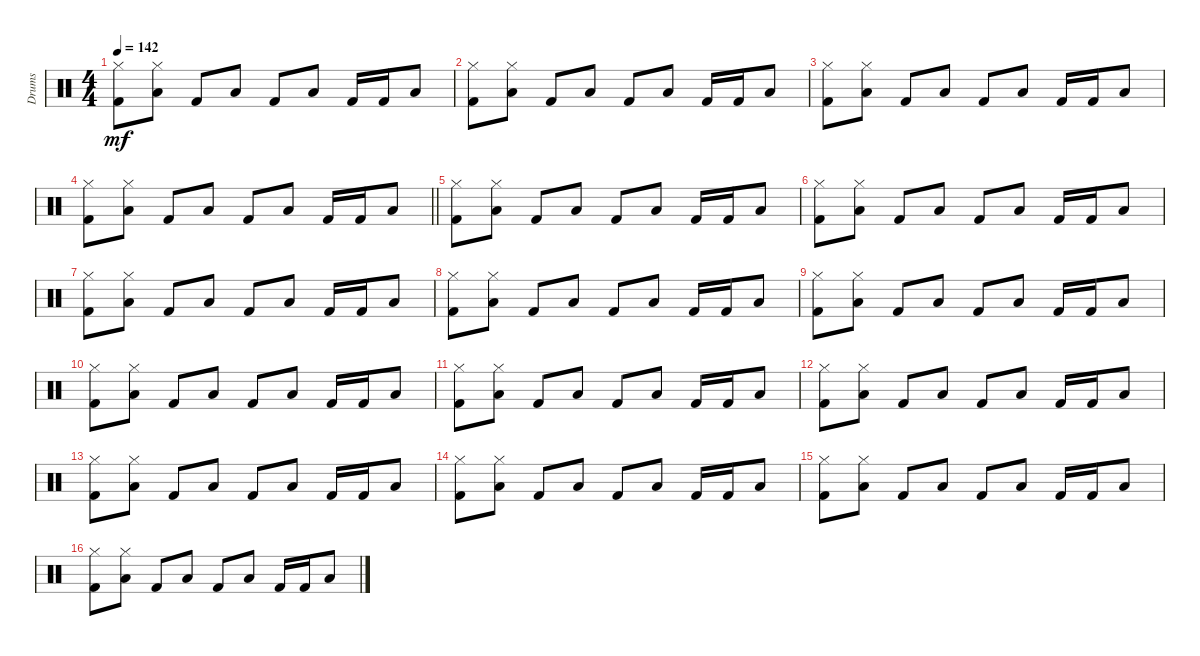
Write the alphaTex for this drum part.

\track ("Drums" "Drums") {instrument percussion}
\staff {score}
\articulation defaults
\ts (4 4)
\tempo 142
\clef neutral
\ks c
("Hi-Hat (closed)" "Kick (hit) 2").8{dy mf} ("Hi-Hat (closed)" "Low Tom (hit)").8 "Kick (hit) 2".8 "Low Tom (hit)".8 "Kick (hit) 2".8 "Low Tom (hit)".8 "Kick (hit) 2".16 "Kick (hit) 2".16 "Low Tom (hit)".8 |
("Hi-Hat (closed)" "Kick (hit) 2").8 ("Hi-Hat (closed)" "Low Tom (hit)").8 "Kick (hit) 2".8 "Low Tom (hit)".8 "Kick (hit) 2".8 "Low Tom (hit)".8 "Kick (hit) 2".16 "Kick (hit) 2".16 "Low Tom (hit)".8 |
("Hi-Hat (closed)" "Kick (hit) 2").8 ("Hi-Hat (closed)" "Low Tom (hit)").8 "Kick (hit) 2".8 "Low Tom (hit)".8 "Kick (hit) 2".8 "Low Tom (hit)".8 "Kick (hit) 2".16 "Kick (hit) 2".16 "Low Tom (hit)".8 |
\barLineRight lightlight
("Hi-Hat (closed)" "Kick (hit) 2").8 ("Hi-Hat (closed)" "Low Tom (hit)").8 "Kick (hit) 2".8 "Low Tom (hit)".8 "Kick (hit) 2".8 "Low Tom (hit)".8 "Kick (hit) 2".16 "Kick (hit) 2".16 "Low Tom (hit)".8 |
\section ("" "")
("Hi-Hat (closed)" "Kick (hit) 2").8 ("Hi-Hat (closed)" "Low Tom (hit)").8 "Kick (hit) 2".8 "Low Tom (hit)".8 "Kick (hit) 2".8 "Low Tom (hit)".8 "Kick (hit) 2".16 "Kick (hit) 2".16 "Low Tom (hit)".8 |
("Hi-Hat (closed)" "Kick (hit) 2").8 ("Hi-Hat (closed)" "Low Tom (hit)").8 "Kick (hit) 2".8 "Low Tom (hit)".8 "Kick (hit) 2".8 "Low Tom (hit)".8 "Kick (hit) 2".16 "Kick (hit) 2".16 "Low Tom (hit)".8 |
("Hi-Hat (closed)" "Kick (hit) 2").8 ("Hi-Hat (closed)" "Low Tom (hit)").8 "Kick (hit) 2".8 "Low Tom (hit)".8 "Kick (hit) 2".8 "Low Tom (hit)".8 "Kick (hit) 2".16 "Kick (hit) 2".16 "Low Tom (hit)".8 |
("Hi-Hat (closed)" "Kick (hit) 2").8 ("Hi-Hat (closed)" "Low Tom (hit)").8 "Kick (hit) 2".8 "Low Tom (hit)".8 "Kick (hit) 2".8 "Low Tom (hit)".8 "Kick (hit) 2".16 "Kick (hit) 2".16 "Low Tom (hit)".8 |
("Hi-Hat (closed)" "Kick (hit) 2").8 ("Hi-Hat (closed)" "Low Tom (hit)").8 "Kick (hit) 2".8 "Low Tom (hit)".8 "Kick (hit) 2".8 "Low Tom (hit)".8 "Kick (hit) 2".16 "Kick (hit) 2".16 "Low Tom (hit)".8 |
("Hi-Hat (closed)" "Kick (hit) 2").8 ("Hi-Hat (closed)" "Low Tom (hit)").8 "Kick (hit) 2".8 "Low Tom (hit)".8 "Kick (hit) 2".8 "Low Tom (hit)".8 "Kick (hit) 2".16 "Kick (hit) 2".16 "Low Tom (hit)".8 |
("Hi-Hat (closed)" "Kick (hit) 2").8 ("Hi-Hat (closed)" "Low Tom (hit)").8 "Kick (hit) 2".8 "Low Tom (hit)".8 "Kick (hit) 2".8 "Low Tom (hit)".8 "Kick (hit) 2".16 "Kick (hit) 2".16 "Low Tom (hit)".8 |
("Hi-Hat (closed)" "Kick (hit) 2").8 ("Hi-Hat (closed)" "Low Tom (hit)").8 "Kick (hit) 2".8 "Low Tom (hit)".8 "Kick (hit) 2".8 "Low Tom (hit)".8 "Kick (hit) 2".16 "Kick (hit) 2".16 "Low Tom (hit)".8 |
("Hi-Hat (closed)" "Kick (hit) 2").8 ("Hi-Hat (closed)" "Low Tom (hit)").8 "Kick (hit) 2".8 "Low Tom (hit)".8 "Kick (hit) 2".8 "Low Tom (hit)".8 "Kick (hit) 2".16 "Kick (hit) 2".16 "Low Tom (hit)".8 |
("Hi-Hat (closed)" "Kick (hit) 2").8 ("Hi-Hat (closed)" "Low Tom (hit)").8 "Kick (hit) 2".8 "Low Tom (hit)".8 "Kick (hit) 2".8 "Low Tom (hit)".8 "Kick (hit) 2".16 "Kick (hit) 2".16 "Low Tom (hit)".8 |
("Hi-Hat (closed)" "Kick (hit) 2").8 ("Hi-Hat (closed)" "Low Tom (hit)").8 "Kick (hit) 2".8 "Low Tom (hit)".8 "Kick (hit) 2".8 "Low Tom (hit)".8 "Kick (hit) 2".16 "Kick (hit) 2".16 "Low Tom (hit)".8 |
("Hi-Hat (closed)" "Kick (hit) 2").8 ("Hi-Hat (closed)" "Low Tom (hit)").8 "Kick (hit) 2".8 "Low Tom (hit)".8 "Kick (hit) 2".8 "Low Tom (hit)".8 "Kick (hit) 2".16 "Kick (hit) 2".16 "Low Tom (hit)".8
